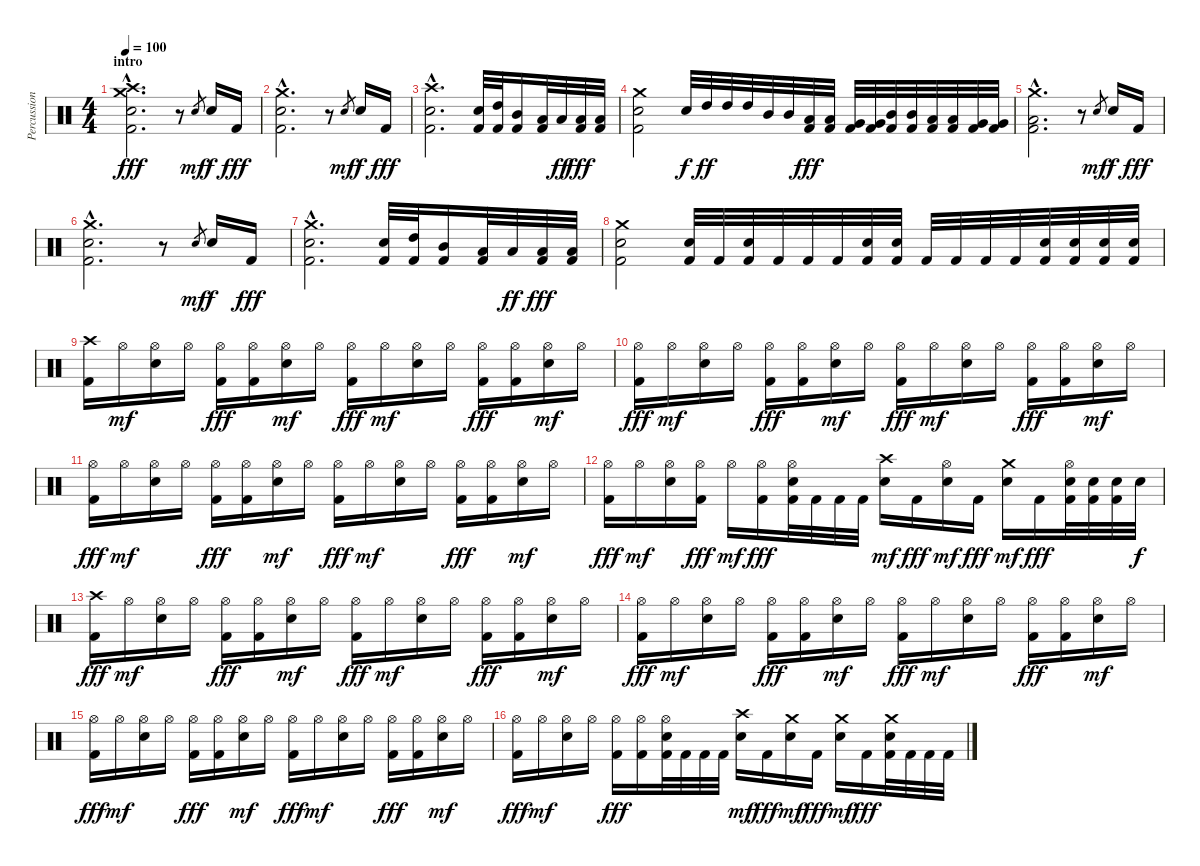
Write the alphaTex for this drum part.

\track ("Percussion" "Percussion") {instrument percussion}
\staff {score}
\articulation defaults
\ts (4 4)
\section ("" "intro")
\tempo 100
\clef neutral
\ks c
("Crash high (hit)"{hac} "Crash medium (hit)"{hac} "Snare (hit) 2"{hac} "Kick (hit) 2"{hac}).2{d dy fff} r.8 "Snare (hit) 2".8{gr dy mf} "Snare (hit) 2".16{dy f} "Kick (hit) 2".16{dy fff} |
("Crash medium (hit)"{hac} "Snare (hit) 2"{hac} "Kick (hit) 2"{hac}).2{d} r.8 "Snare (hit) 2".8{gr dy mf} "Snare (hit) 2".16{dy f} "Kick (hit) 2".16{dy fff} |
("Crash high (hit)"{hac} "Snare (hit) 2"{hac} "Kick (hit) 2"{hac}).2{d} ("Snare (hit) 2" "Kick (hit) 2").32 ("High Tom (hit)" "Kick (hit) 2").32 ("Mid Tom (hit)" "Kick (hit) 2").16 ("Low Tom (hit)" "Kick (hit) 2").32 "Low Tom (hit)".32{dy ff} ("Low Tom (hit)" "Kick (hit) 2").32{dy fff} ("Low Tom (hit)" "Kick (hit) 2").32 |
("Crash medium (hit)" "Snare (hit) 2" "Kick (hit) 2").2 "Snare (hit) 2".32{dy f} "High Tom (hit)".32{dy ff} "High Tom (hit)".32 "High Tom (hit)".32 "Mid Tom (hit)".32 "Mid Tom (hit)".32 ("Low Tom (hit)" "Kick (hit) 2").32{dy fff} ("Low Tom (hit)" "Kick (hit) 2").32 ("Very Low Tom (hit)" "Kick (hit) 2").32 ("Very Low Tom (hit)" "Kick (hit) 2").32 ("Mid Tom (hit)" "Kick (hit) 2").32 ("Mid Tom (hit)" "Kick (hit) 2").32 ("Low Tom (hit)" "Kick (hit) 2").32 ("Low Tom (hit)" "Kick (hit) 2").32 ("Very Low Tom (hit)" "Kick (hit) 2").32 ("Very Low Tom (hit)" "Kick (hit) 2").32 |
("Crash medium (hit)"{hac} "Low Floor Tom (hit)"{hac} "Kick (hit) 2"{hac}).2{d} r.8 "Snare (hit) 2".8{gr dy mf} "Snare (hit) 2".16{dy f} "Kick (hit) 2".16{dy fff} |
("Crash medium (hit)"{hac} "Snare (hit) 2"{hac} "Kick (hit) 2"{hac}).2{d} r.8 "Snare (hit) 2".8{gr dy mf} "Snare (hit) 2".16{dy f} "Kick (hit) 2".16{dy fff} |
("Crash medium (hit)"{hac} "Snare (hit) 2"{hac} "Kick (hit) 2"{hac}).2{d} ("Snare (hit) 2" "Kick (hit) 2").32 ("High Tom (hit)" "Kick (hit) 2").32 ("Mid Tom (hit)" "Kick (hit) 2").16 ("Low Tom (hit)" "Kick (hit) 2").32 "Low Tom (hit)".32{dy ff} ("Low Tom (hit)" "Kick (hit) 2").32{dy fff} ("Low Tom (hit)" "Kick (hit) 2").32 |
("Crash medium (hit)" "Snare (hit) 2" "Kick (hit) 2").2 ("Snare (hit) 2" "Kick (hit) 2").32 "Kick (hit) 2".32 ("Snare (hit) 2" "Kick (hit) 2").32 "Kick (hit) 2".32 "Kick (hit) 2".32 "Kick (hit) 2".32 ("Snare (hit) 2" "Kick (hit) 2").32 ("Snare (hit) 2" "Kick (hit) 2").32 "Kick (hit) 2".32 "Kick (hit) 2".32 "Kick (hit) 2".32 "Kick (hit) 2".32 ("Snare (hit) 2" "Kick (hit) 2").32 ("Snare (hit) 2" "Kick (hit) 2").32 ("Snare (hit) 2" "Kick (hit) 2").32 ("Snare (hit) 2" "Kick (hit) 2").32 |
\section ("" "")
("Crash high (hit)" "Kick (hit) 2").16 "Hi-Hat (open)".16{dy mf} ("Hi-Hat (open)" "Snare (hit) 2").16 "Hi-Hat (open)".16 ("Hi-Hat (open)" "Kick (hit) 2").16{dy fff} ("Hi-Hat (open)" "Kick (hit) 2").16 ("Hi-Hat (open)" "Snare (hit) 2").16{dy mf} "Hi-Hat (open)".16 ("Hi-Hat (open)" "Kick (hit) 2").16{dy fff} "Hi-Hat (open)".16{dy mf} ("Hi-Hat (open)" "Snare (hit) 2").16 "Hi-Hat (open)".16 ("Hi-Hat (open)" "Kick (hit) 2").16{dy fff} ("Hi-Hat (open)" "Kick (hit) 2").16 ("Hi-Hat (open)" "Snare (hit) 2").16{dy mf} "Hi-Hat (open)".16 |
("Hi-Hat (open)" "Kick (hit) 2").16{dy fff} "Hi-Hat (open)".16{dy mf} ("Hi-Hat (open)" "Snare (hit) 2").16 "Hi-Hat (open)".16 ("Hi-Hat (open)" "Kick (hit) 2").16{dy fff} ("Hi-Hat (open)" "Kick (hit) 2").16 ("Hi-Hat (open)" "Snare (hit) 2").16{dy mf} "Hi-Hat (open)".16 ("Hi-Hat (open)" "Kick (hit) 2").16{dy fff} "Hi-Hat (open)".16{dy mf} ("Hi-Hat (open)" "Snare (hit) 2").16 "Hi-Hat (open)".16 ("Hi-Hat (open)" "Kick (hit) 2").16{dy fff} ("Hi-Hat (open)" "Kick (hit) 2").16 ("Hi-Hat (open)" "Snare (hit) 2").16{dy mf} "Hi-Hat (open)".16 |
("Hi-Hat (open)" "Kick (hit) 2").16{dy fff} "Hi-Hat (open)".16{dy mf} ("Hi-Hat (open)" "Snare (hit) 2").16 "Hi-Hat (open)".16 ("Hi-Hat (open)" "Kick (hit) 2").16{dy fff} ("Hi-Hat (open)" "Kick (hit) 2").16 ("Hi-Hat (open)" "Snare (hit) 2").16{dy mf} "Hi-Hat (open)".16 ("Hi-Hat (open)" "Kick (hit) 2").16{dy fff} "Hi-Hat (open)".16{dy mf} ("Hi-Hat (open)" "Snare (hit) 2").16 "Hi-Hat (open)".16 ("Hi-Hat (open)" "Kick (hit) 2").16{dy fff} ("Hi-Hat (open)" "Kick (hit) 2").16 ("Hi-Hat (open)" "Snare (hit) 2").16{dy mf} "Hi-Hat (open)".16 |
("Hi-Hat (open)" "Kick (hit) 2").16{dy fff} "Hi-Hat (open)".16{dy mf} ("Hi-Hat (open)" "Snare (hit) 2").16 ("Hi-Hat (open)" "Kick (hit) 2").16{dy fff} "Hi-Hat (open)".16{dy mf} ("Hi-Hat (open)" "Kick (hit) 2").16{dy fff} ("Hi-Hat (open)" "Snare (hit) 2" "Kick (hit) 2").32 "Kick (hit) 2".32 "Kick (hit) 2".32 "Kick (hit) 2".32 ("Crash high (hit)" "Snare (hit) 2").16{dy mf} "Kick (hit) 2".16{dy fff} ("Hi-Hat (open)" "Snare (hit) 2").16{dy mf} "Kick (hit) 2".16{dy fff} ("Crash medium (hit)" "Snare (hit) 2").16{dy mf} "Kick (hit) 2".16{dy fff} ("Hi-Hat (open)" "Snare (hit) 2" "Kick (hit) 2").32 ("Snare (hit) 2" "Kick (hit) 2").32 ("Snare (hit) 2" "Kick (hit) 2").32 "Snare (hit) 2".32{dy f} |
("Crash high (hit)" "Kick (hit) 2").16{dy fff} "Hi-Hat (open)".16{dy mf} ("Hi-Hat (open)" "Snare (hit) 2").16 "Hi-Hat (open)".16 ("Hi-Hat (open)" "Kick (hit) 2").16{dy fff} ("Hi-Hat (open)" "Kick (hit) 2").16 ("Hi-Hat (open)" "Snare (hit) 2").16{dy mf} "Hi-Hat (open)".16 ("Hi-Hat (open)" "Kick (hit) 2").16{dy fff} "Hi-Hat (open)".16{dy mf} ("Hi-Hat (open)" "Snare (hit) 2").16 "Hi-Hat (open)".16 ("Hi-Hat (open)" "Kick (hit) 2").16{dy fff} ("Hi-Hat (open)" "Kick (hit) 2").16 ("Hi-Hat (open)" "Snare (hit) 2").16{dy mf} "Hi-Hat (open)".16 |
("Hi-Hat (open)" "Kick (hit) 2").16{dy fff} "Hi-Hat (open)".16{dy mf} ("Hi-Hat (open)" "Snare (hit) 2").16 "Hi-Hat (open)".16 ("Hi-Hat (open)" "Kick (hit) 2").16{dy fff} ("Hi-Hat (open)" "Kick (hit) 2").16 ("Hi-Hat (open)" "Snare (hit) 2").16{dy mf} "Hi-Hat (open)".16 ("Hi-Hat (open)" "Kick (hit) 2").16{dy fff} "Hi-Hat (open)".16{dy mf} ("Hi-Hat (open)" "Snare (hit) 2").16 "Hi-Hat (open)".16 ("Hi-Hat (open)" "Kick (hit) 2").16{dy fff} ("Hi-Hat (open)" "Kick (hit) 2").16 ("Hi-Hat (open)" "Snare (hit) 2").16{dy mf} "Hi-Hat (open)".16 |
("Hi-Hat (open)" "Kick (hit) 2").16{dy fff} "Hi-Hat (open)".16{dy mf} ("Hi-Hat (open)" "Snare (hit) 2").16 "Hi-Hat (open)".16 ("Hi-Hat (open)" "Kick (hit) 2").16{dy fff} ("Hi-Hat (open)" "Kick (hit) 2").16 ("Hi-Hat (open)" "Snare (hit) 2").16{dy mf} "Hi-Hat (open)".16 ("Hi-Hat (open)" "Kick (hit) 2").16{dy fff} "Hi-Hat (open)".16{dy mf} ("Hi-Hat (open)" "Snare (hit) 2").16 "Hi-Hat (open)".16 ("Hi-Hat (open)" "Kick (hit) 2").16{dy fff} ("Hi-Hat (open)" "Kick (hit) 2").16 ("Hi-Hat (open)" "Snare (hit) 2").16{dy mf} "Hi-Hat (open)".16 |
("Hi-Hat (open)" "Kick (hit) 2").16{dy fff} "Hi-Hat (open)".16{dy mf} ("Hi-Hat (open)" "Snare (hit) 2").16 "Hi-Hat (open)".16 ("Hi-Hat (open)" "Kick (hit) 2").16{dy fff} ("Hi-Hat (open)" "Kick (hit) 2").16 ("Hi-Hat (open)" "Snare (hit) 2" "Kick (hit) 2").32 "Kick (hit) 2".32 "Kick (hit) 2".32 "Kick (hit) 2".32 ("Crash high (hit)" "Snare (hit) 2").16{dy mf} "Kick (hit) 2".16{dy fff} ("Crash medium (hit)" "Snare (hit) 2").16{dy mf} "Kick (hit) 2".16{dy fff} ("Crash medium (hit)" "Snare (hit) 2").16{dy mf} "Kick (hit) 2".16{dy fff} ("Crash medium (hit)" "Snare (hit) 2" "Kick (hit) 2").32 "Kick (hit) 2".32 "Kick (hit) 2".32 "Kick (hit) 2".32
